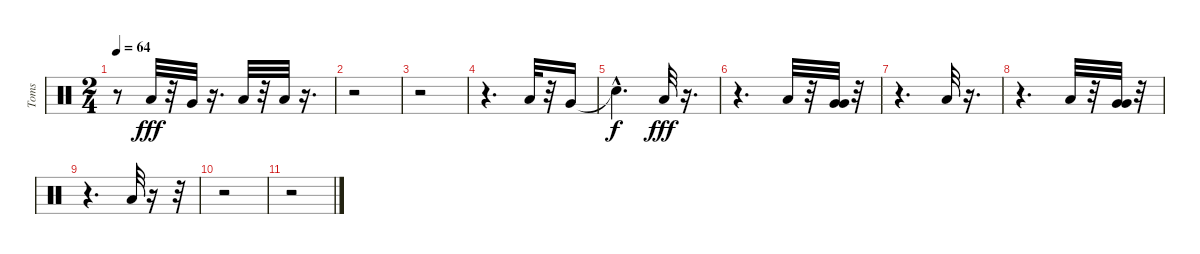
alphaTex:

\track ("Toms" "Toms") {instrument percussion}
\staff {score}
\articulation defaults
\ts (2 4)
\tempo 64
\clef neutral
\ks c
r.8{dy fff} "Low Tom (hit)".32 r.32 "Very Low Tom (hit)".32 r.16{d} "Low Floor Tom (hit)".32 r.32 "Low Floor Tom (hit)".32 r.16{d} |
r.2 |
r.2 |
r.4{d} "Low Tom (hit)".32 r.32 "Very Low Tom (hit)".16 |
"Snare (hit)"{hac t}.4{d dy f} "Low Floor Tom (hit)".32{dy fff} r.16{d} |
r.4{d} "Low Tom (hit)".32 r.32 ("Very Low Tom (hit)" "Very Low Tom (hit)").32 r.32 |
r.4{d} "Low Floor Tom (hit)".32 r.16{d} |
r.4{d} "Low Tom (hit)".32 r.32 ("Very Low Tom (hit)" "Very Low Tom (hit)").32 r.32 |
r.4{d} "Low Floor Tom (hit)".32 r.16 r.32 |
r.2 |
r.2
